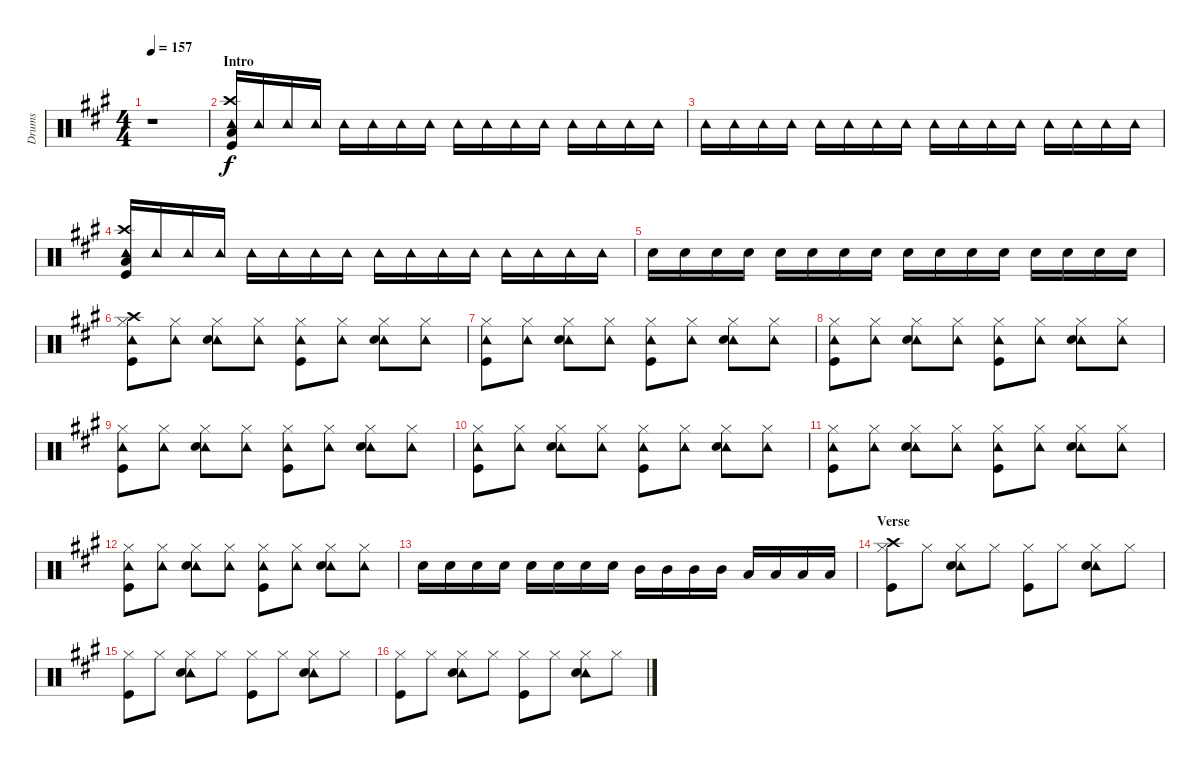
\track ("Drums" "Drums") {instrument percussion}
\staff {score}
\articulation defaults
\ts (4 4)
\tempo 157
\clef neutral
\ks a
r.1{dy f} |
\section ("" "Intro")
("Tambourine (hit)" "Crash high (hit)" "Low Floor Tom (hit)" "Kick (hit)").16 "Tambourine (hit)".16 "Tambourine (hit)".16 "Tambourine (hit)".16 "Tambourine (hit)".16 "Tambourine (hit)".16 "Tambourine (hit)".16 "Tambourine (hit)".16 "Tambourine (hit)".16 "Tambourine (hit)".16 "Tambourine (hit)".16 "Tambourine (hit)".16 "Tambourine (hit)".16 "Tambourine (hit)".16 "Tambourine (hit)".16 "Tambourine (hit)".16 |
"Tambourine (hit)".16 "Tambourine (hit)".16 "Tambourine (hit)".16 "Tambourine (hit)".16 "Tambourine (hit)".16 "Tambourine (hit)".16 "Tambourine (hit)".16 "Tambourine (hit)".16 "Tambourine (hit)".16 "Tambourine (hit)".16 "Tambourine (hit)".16 "Tambourine (hit)".16 "Tambourine (hit)".16 "Tambourine (hit)".16 "Tambourine (hit)".16 "Tambourine (hit)".16 |
("Tambourine (hit)" "Crash high (hit)" "Low Floor Tom (hit)" "Kick (hit)").16 "Tambourine (hit)".16 "Tambourine (hit)".16 "Tambourine (hit)".16 "Tambourine (hit)".16 "Tambourine (hit)".16 "Tambourine (hit)".16 "Tambourine (hit)".16 "Tambourine (hit)".16 "Tambourine (hit)".16 "Tambourine (hit)".16 "Tambourine (hit)".16 "Tambourine (hit)".16 "Tambourine (hit)".16 "Tambourine (hit)".16 "Tambourine (hit)".16 |
"Electric Snare (hit)".16{volume 14} "Electric Snare (hit)".16 "Electric Snare (hit)".16 "Electric Snare (hit)".16 "Electric Snare (hit)".16 "Electric Snare (hit)".16 "Electric Snare (hit)".16 "Electric Snare (hit)".16 "Electric Snare (hit)".16 "Electric Snare (hit)".16 "Electric Snare (hit)".16 "Electric Snare (hit)".16 "Electric Snare (hit)".16 "Electric Snare (hit)".16 "Electric Snare (hit)".16 "Electric Snare (hit)".16 |
("Hi-Hat (closed)" "Crash high (hit)" "Tambourine (hit)" "Kick (hit)").8 ("Hi-Hat (closed)" "Tambourine (hit)").8 ("Hi-Hat (closed)" "Tambourine (hit)" "Electric Snare (hit)").8 ("Hi-Hat (closed)" "Tambourine (hit)").8 ("Hi-Hat (closed)" "Tambourine (hit)" "Kick (hit)").8 ("Hi-Hat (closed)" "Tambourine (hit)").8 ("Hi-Hat (closed)" "Tambourine (hit)" "Electric Snare (hit)").8 ("Hi-Hat (closed)" "Tambourine (hit)").8 |
("Hi-Hat (closed)" "Tambourine (hit)" "Kick (hit)").8 ("Hi-Hat (closed)" "Tambourine (hit)").8 ("Hi-Hat (closed)" "Tambourine (hit)" "Electric Snare (hit)").8 ("Hi-Hat (closed)" "Tambourine (hit)").8 ("Hi-Hat (closed)" "Tambourine (hit)" "Kick (hit)").8 ("Hi-Hat (closed)" "Tambourine (hit)").8 ("Hi-Hat (closed)" "Tambourine (hit)" "Electric Snare (hit)").8 ("Hi-Hat (closed)" "Tambourine (hit)").8 |
("Hi-Hat (closed)" "Tambourine (hit)" "Kick (hit)").8 ("Hi-Hat (closed)" "Tambourine (hit)").8 ("Hi-Hat (closed)" "Tambourine (hit)" "Electric Snare (hit)").8 ("Hi-Hat (closed)" "Tambourine (hit)").8 ("Hi-Hat (closed)" "Tambourine (hit)" "Kick (hit)").8 ("Hi-Hat (closed)" "Tambourine (hit)").8 ("Hi-Hat (closed)" "Tambourine (hit)" "Electric Snare (hit)").8 ("Hi-Hat (closed)" "Tambourine (hit)").8 |
("Hi-Hat (closed)" "Tambourine (hit)" "Kick (hit)").8 ("Hi-Hat (closed)" "Tambourine (hit)").8 ("Hi-Hat (closed)" "Tambourine (hit)" "Electric Snare (hit)").8 ("Hi-Hat (closed)" "Tambourine (hit)").8 ("Hi-Hat (closed)" "Tambourine (hit)" "Kick (hit)").8 ("Hi-Hat (closed)" "Tambourine (hit)").8 ("Hi-Hat (closed)" "Tambourine (hit)" "Electric Snare (hit)").8 ("Hi-Hat (closed)" "Tambourine (hit)").8 |
("Hi-Hat (closed)" "Tambourine (hit)" "Kick (hit)").8 ("Hi-Hat (closed)" "Tambourine (hit)").8 ("Hi-Hat (closed)" "Tambourine (hit)" "Electric Snare (hit)").8 ("Hi-Hat (closed)" "Tambourine (hit)").8 ("Hi-Hat (closed)" "Tambourine (hit)" "Kick (hit)").8 ("Hi-Hat (closed)" "Tambourine (hit)").8 ("Hi-Hat (closed)" "Tambourine (hit)" "Electric Snare (hit)").8 ("Hi-Hat (closed)" "Tambourine (hit)").8 |
("Hi-Hat (closed)" "Tambourine (hit)" "Kick (hit)").8 ("Hi-Hat (closed)" "Tambourine (hit)").8 ("Hi-Hat (closed)" "Tambourine (hit)" "Electric Snare (hit)").8 ("Hi-Hat (closed)" "Tambourine (hit)").8 ("Hi-Hat (closed)" "Tambourine (hit)" "Kick (hit)").8 ("Hi-Hat (closed)" "Tambourine (hit)").8 ("Hi-Hat (closed)" "Tambourine (hit)" "Electric Snare (hit)").8 ("Hi-Hat (closed)" "Tambourine (hit)").8 |
("Hi-Hat (closed)" "Tambourine (hit)" "Kick (hit)").8 ("Hi-Hat (closed)" "Tambourine (hit)").8 ("Hi-Hat (closed)" "Tambourine (hit)" "Electric Snare (hit)").8 ("Hi-Hat (closed)" "Tambourine (hit)").8 ("Hi-Hat (closed)" "Tambourine (hit)" "Kick (hit)").8 ("Hi-Hat (closed)" "Tambourine (hit)").8 ("Hi-Hat (closed)" "Tambourine (hit)" "Electric Snare (hit)").8 ("Hi-Hat (closed)" "Tambourine (hit)").8 |
"Electric Snare (hit)".16 "Electric Snare (hit)".16 "Electric Snare (hit)".16 "Electric Snare (hit)".16 "Electric Snare (hit)".16 "Electric Snare (hit)".16 "Electric Snare (hit)".16 "Electric Snare (hit)".16 "Mid Tom (hit)".16 "Mid Tom (hit)".16 "Mid Tom (hit)".16 "Mid Tom (hit)".16 "Low Tom (hit)".16 "Low Tom (hit)".16 "Low Tom (hit)".16 "Low Tom (hit)".16 |
\section ("" "Verse")
("Hi-Hat (closed)" "Crash high (hit)" "Kick (hit)").8 "Hi-Hat (closed)".8 ("Hi-Hat (closed)" "Tambourine (hit)" "Electric Snare (hit)").8 "Hi-Hat (closed)".8 ("Hi-Hat (closed)" "Kick (hit)").8 "Hi-Hat (closed)".8 ("Hi-Hat (closed)" "Tambourine (hit)" "Electric Snare (hit)").8 "Hi-Hat (closed)".8 |
("Hi-Hat (closed)" "Kick (hit)").8 "Hi-Hat (closed)".8 ("Hi-Hat (closed)" "Tambourine (hit)" "Electric Snare (hit)").8 "Hi-Hat (closed)".8 ("Hi-Hat (closed)" "Kick (hit)").8 "Hi-Hat (closed)".8 ("Hi-Hat (closed)" "Tambourine (hit)" "Electric Snare (hit)").8 "Hi-Hat (closed)".8 |
("Hi-Hat (closed)" "Kick (hit)").8 "Hi-Hat (closed)".8 ("Hi-Hat (closed)" "Tambourine (hit)" "Electric Snare (hit)").8 "Hi-Hat (closed)".8 ("Hi-Hat (closed)" "Kick (hit)").8 "Hi-Hat (closed)".8 ("Hi-Hat (closed)" "Tambourine (hit)" "Electric Snare (hit)").8 "Hi-Hat (closed)".8
